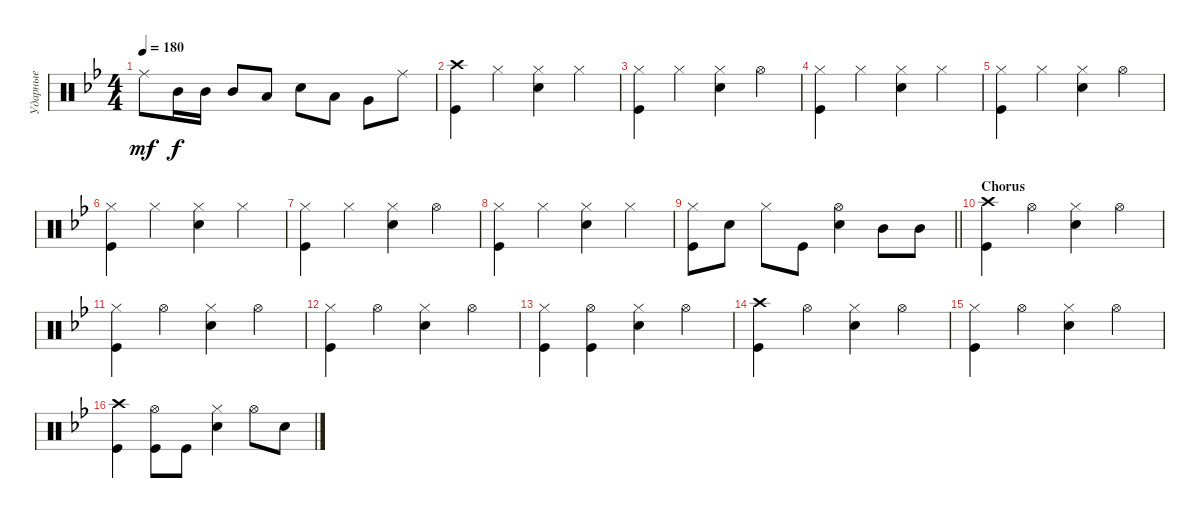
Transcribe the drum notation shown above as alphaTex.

\track ("Ударные" "Ударные") {instrument percussion}
\staff {score}
\articulation defaults
\ts (4 4)
\tempo 180
\clef neutral
\ks gminor "Ride (middle)".8{dy mf} "Mid Tom (hit)".16{dy f} "Mid Tom (hit)".16 "Mid Tom (hit)".8 "Low Tom (hit)".8 "Snare (hit) 2".8 "Low Tom (hit)".8 "Very Low Tom (hit)".8 "Ride (middle)".8
|
("Crash high (hit)" "Kick (hit)").4 "Hi-Hat (closed)".4 ("Hi-Hat (closed)" "Snare (hit) 2").4 "Hi-Hat (closed)".4 |
("Hi-Hat (closed)" "Kick (hit)").4 "Hi-Hat (closed)".4 ("Hi-Hat (closed)" "Snare (hit) 2").4 "Hi-Hat (open)".4 |
("Hi-Hat (closed)" "Kick (hit)").4 "Hi-Hat (closed)".4 ("Hi-Hat (closed)" "Snare (hit) 2").4 "Hi-Hat (closed)".4 |
("Hi-Hat (closed)" "Kick (hit)").4 "Hi-Hat (closed)".4 ("Hi-Hat (closed)" "Snare (hit) 2").4 "Hi-Hat (open)".4 |
("Hi-Hat (closed)" "Kick (hit)").4 "Hi-Hat (closed)".4 ("Hi-Hat (closed)" "Snare (hit) 2").4 "Hi-Hat (closed)".4 |
("Hi-Hat (closed)" "Kick (hit)").4 "Hi-Hat (closed)".4 ("Hi-Hat (closed)" "Snare (hit) 2").4 "Hi-Hat (open)".4 |
("Hi-Hat (closed)" "Kick (hit)").4 "Hi-Hat (closed)".4 ("Hi-Hat (closed)" "Snare (hit) 2").4 "Hi-Hat (closed)".4 |
\barLineRight lightlight
("Kick (hit)" "Hi-Hat (closed)").8 "Snare (hit) 2".8 "Hi-Hat (closed)".8 "Kick (hit)".8 ("Snare (hit) 2" "Hi-Hat (open)").4 "Mid Tom (hit)".8 "Mid Tom (hit)".8 |
\section ("" "Chorus")
("Crash high (hit)" "Kick (hit)").4 "Hi-Hat (open)".4 ("Hi-Hat (closed)" "Snare (hit) 2").4 "Hi-Hat (open)".4 |
("Hi-Hat (closed)" "Kick (hit)").4 "Hi-Hat (open)".4 ("Hi-Hat (closed)" "Snare (hit) 2").4 "Hi-Hat (open)".4 |
("Hi-Hat (closed)" "Kick (hit)").4 "Hi-Hat (open)".4 ("Hi-Hat (closed)" "Snare (hit) 2").4 "Hi-Hat (open)".4 |
("Hi-Hat (closed)" "Kick (hit)").4 ("Hi-Hat (open)" "Kick (hit)").4 ("Hi-Hat (closed)" "Snare (hit) 2").4 "Hi-Hat (open)".4 |
("Crash high (hit)" "Kick (hit)").4 "Hi-Hat (open)".4 ("Hi-Hat (closed)" "Snare (hit) 2").4 "Hi-Hat (open)".4 |
("Hi-Hat (closed)" "Kick (hit)").4 "Hi-Hat (open)".4 ("Hi-Hat (closed)" "Snare (hit) 2").4 "Hi-Hat (open)".4 |
("Crash high (hit)" "Kick (hit)").4 ("Hi-Hat (open)" "Kick (hit)").8 "Kick (hit)".8 ("Hi-Hat (closed)" "Snare (hit) 2").4 "Hi-Hat (open)".8 "Snare (hit) 2".8
